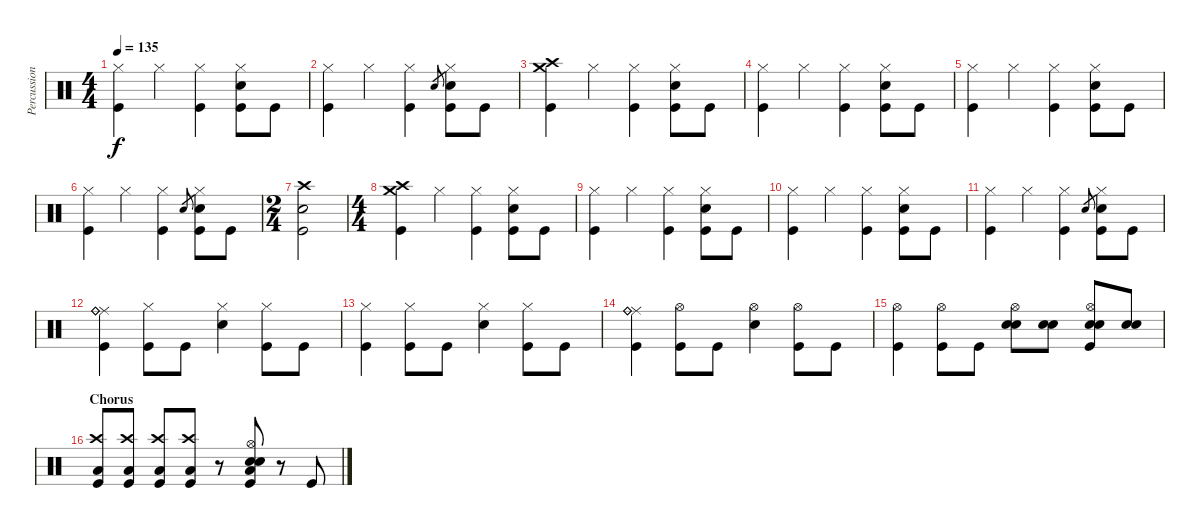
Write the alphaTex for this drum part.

\track ("Percussions" "Percussion") {instrument percussion}
\staff {score}
\articulation defaults
\ts (4 4)
\tempo 135
\clef neutral
\ks c
("Hi-Hat (closed)" "Kick (hit)").4{dy f} "Hi-Hat (closed)".4 ("Hi-Hat (closed)" "Kick (hit)").4 ("Hi-Hat (closed)" "Electric Snare (hit)" "Kick (hit)").8 "Kick (hit)".8 |
("Hi-Hat (closed)" "Kick (hit)").4 "Hi-Hat (closed)".4 ("Hi-Hat (closed)" "Kick (hit)").4 "Electric Snare (hit)".8{gr} ("Hi-Hat (closed)" "Electric Snare (hit)" "Kick (hit)").8 "Kick (hit)".8 |
("Crash high (hit)" "Crash medium (hit)" "Kick (hit)").4 "Hi-Hat (closed)".4 ("Hi-Hat (closed)" "Kick (hit)").4 ("Hi-Hat (closed)" "Electric Snare (hit)" "Kick (hit)").8 "Kick (hit)".8 |
("Hi-Hat (closed)" "Kick (hit)").4 "Hi-Hat (closed)".4 ("Hi-Hat (closed)" "Kick (hit)").4 ("Hi-Hat (closed)" "Electric Snare (hit)" "Kick (hit)").8 "Kick (hit)".8 |
("Hi-Hat (closed)" "Kick (hit)").4 "Hi-Hat (closed)".4 ("Hi-Hat (closed)" "Kick (hit)").4 ("Hi-Hat (closed)" "Electric Snare (hit)" "Kick (hit)").8 "Kick (hit)".8 |
("Hi-Hat (closed)" "Kick (hit)").4 "Hi-Hat (closed)".4 ("Hi-Hat (closed)" "Kick (hit)").4 "Electric Snare (hit)".8{gr} ("Hi-Hat (closed)" "Electric Snare (hit)" "Kick (hit)").8 "Kick (hit)".8 |
\ts (2 4)
("Crash high (hit)" "Electric Snare (hit)" "Kick (hit)").2 |
\ts (4 4)
("Crash high (hit)" "Crash medium (hit)" "Kick (hit)").4 "Hi-Hat (closed)".4 ("Hi-Hat (closed)" "Kick (hit)").4 ("Hi-Hat (closed)" "Electric Snare (hit)" "Kick (hit)").8 "Kick (hit)".8 |
("Hi-Hat (closed)" "Kick (hit)").4 "Hi-Hat (closed)".4 ("Hi-Hat (closed)" "Kick (hit)").4 ("Hi-Hat (closed)" "Electric Snare (hit)" "Kick (hit)").8 "Kick (hit)".8 |
("Hi-Hat (closed)" "Kick (hit)").4 "Hi-Hat (closed)".4 ("Hi-Hat (closed)" "Kick (hit)").4 ("Hi-Hat (closed)" "Electric Snare (hit)" "Kick (hit)").8 "Kick (hit)".8 |
("Hi-Hat (closed)" "Kick (hit)").4 "Hi-Hat (closed)".4 ("Hi-Hat (closed)" "Kick (hit)").4 "Electric Snare (hit)".8{gr} ("Hi-Hat (closed)" "Electric Snare (hit)" "Kick (hit)").8 "Kick (hit)".8 |
("Ride (middle)" "Ride (bell)" "Ride (bell)" "Kick (hit)").4 ("Hi-Hat (closed)" "Kick (hit)").8 "Kick (hit)".8 ("Hi-Hat (closed)" "Electric Snare (hit)").4 ("Hi-Hat (closed)" "Kick (hit)").8 "Kick (hit)".8 |
("Hi-Hat (closed)" "Kick (hit)").4 ("Hi-Hat (closed)" "Kick (hit)").8 "Kick (hit)".8 ("Hi-Hat (closed)" "Electric Snare (hit)").4 ("Hi-Hat (closed)" "Kick (hit)").8 "Kick (hit)".8 |
("Ride (middle)" "Ride (bell)" "Ride (bell)" "Kick (hit)").4 ("Hi-Hat (open)" "Kick (hit)").8 "Kick (hit)".8 ("Hi-Hat (open)" "Electric Snare (hit)").4 ("Hi-Hat (open)" "Kick (hit)").8 "Kick (hit)".8 |
("Hi-Hat (open)" "Kick (hit)").4 ("Hi-Hat (open)" "Kick (hit)").8 "Kick (hit)".8 ("Hi-Hat (open)" "Electric Snare (hit)" "Snare (hit) 2").8 ("Electric Snare (hit)" "Snare (hit) 2").8 ("Hi-Hat (open)" "Electric Snare (hit)" "Snare (hit) 2" "Kick (hit)").8 ("Electric Snare (hit)" "Snare (hit) 2").8 |
\section ("" "Chorus")
("Crash high (hit)" "Low Floor Tom (hit)" "Kick (hit)").8 ("Crash high (hit)" "Low Floor Tom (hit)" "Kick (hit)").8 ("Crash high (hit)" "Low Floor Tom (hit)" "Kick (hit)").8 ("Crash high (hit)" "Low Floor Tom (hit)" "Kick (hit)").8 r.8 ("Hi-Hat (open)" "Electric Snare (hit)" "Snare (hit) 2" "Low Floor Tom (hit)" "Kick (hit)").8 r.8 "Kick (hit)".8
